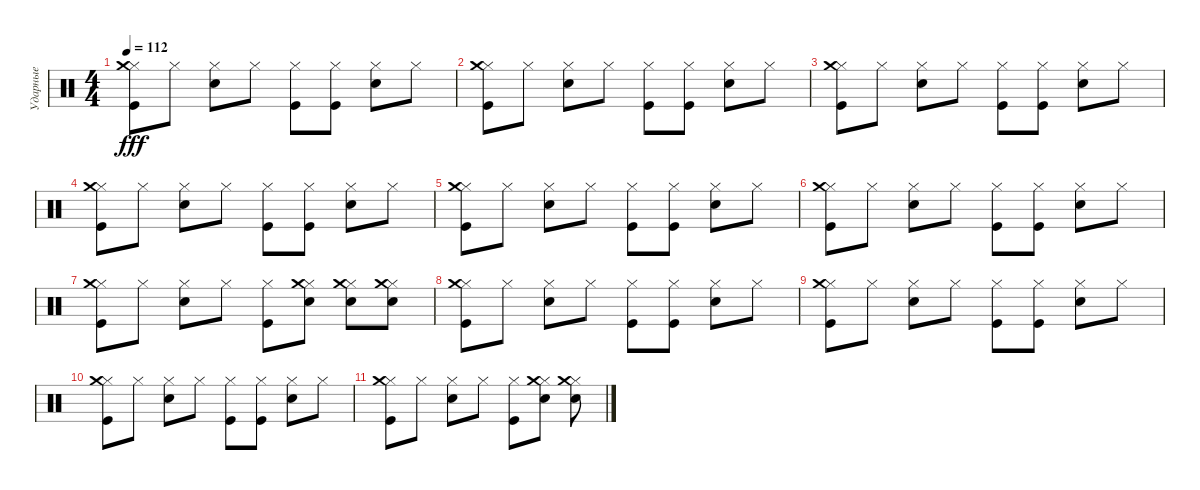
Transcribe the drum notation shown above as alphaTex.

\track ("Ударные" "Ударные") {instrument percussion}
\staff {score}
\articulation defaults
\ts (4 4)
\tempo 112
\clef neutral
\ks c
("Hi-Hat (closed)" "Kick (hit)" "Crash medium (hit)").8{dy fff} "Hi-Hat (closed)".8 ("Hi-Hat (closed)" "Snare (hit) 2").8 "Hi-Hat (closed)".8 ("Hi-Hat (closed)" "Kick (hit)").8 ("Hi-Hat (closed)" "Kick (hit)").8 ("Hi-Hat (closed)" "Snare (hit) 2").8 "Hi-Hat (closed)".8 |
("Hi-Hat (closed)" "Kick (hit)" "Crash medium (hit)").8 "Hi-Hat (closed)".8 ("Hi-Hat (closed)" "Snare (hit) 2").8 "Hi-Hat (closed)".8 ("Hi-Hat (closed)" "Kick (hit)").8 ("Hi-Hat (closed)" "Kick (hit)").8 ("Hi-Hat (closed)" "Snare (hit) 2").8 "Hi-Hat (closed)".8 |
("Hi-Hat (closed)" "Kick (hit)" "Crash medium (hit)").8 "Hi-Hat (closed)".8 ("Hi-Hat (closed)" "Snare (hit) 2").8 "Hi-Hat (closed)".8 ("Hi-Hat (closed)" "Kick (hit)").8 ("Hi-Hat (closed)" "Kick (hit)").8 ("Hi-Hat (closed)" "Snare (hit) 2").8 "Hi-Hat (closed)".8 |
("Hi-Hat (closed)" "Kick (hit)" "Crash medium (hit)").8 "Hi-Hat (closed)".8 ("Hi-Hat (closed)" "Snare (hit) 2").8 "Hi-Hat (closed)".8 ("Hi-Hat (closed)" "Kick (hit)").8 ("Hi-Hat (closed)" "Kick (hit)").8 ("Hi-Hat (closed)" "Snare (hit) 2").8 "Hi-Hat (closed)".8 |
("Hi-Hat (closed)" "Kick (hit)" "Crash medium (hit)").8 "Hi-Hat (closed)".8 ("Hi-Hat (closed)" "Snare (hit) 2").8 "Hi-Hat (closed)".8 ("Hi-Hat (closed)" "Kick (hit)").8 ("Hi-Hat (closed)" "Kick (hit)").8 ("Hi-Hat (closed)" "Snare (hit) 2").8 "Hi-Hat (closed)".8 |
("Hi-Hat (closed)" "Kick (hit)" "Crash medium (hit)").8 "Hi-Hat (closed)".8 ("Hi-Hat (closed)" "Snare (hit) 2").8 "Hi-Hat (closed)".8 ("Hi-Hat (closed)" "Kick (hit)").8 ("Hi-Hat (closed)" "Kick (hit)").8 ("Hi-Hat (closed)" "Snare (hit) 2").8 "Hi-Hat (closed)".8 |
("Hi-Hat (closed)" "Kick (hit)" "Crash medium (hit)").8 "Hi-Hat (closed)".8 ("Hi-Hat (closed)" "Snare (hit) 2").8 "Hi-Hat (closed)".8 ("Hi-Hat (closed)" "Kick (hit)").8 ("Hi-Hat (closed)" "Snare (hit) 2" "Crash medium (hit)").8 ("Hi-Hat (closed)" "Snare (hit) 2" "Crash medium (hit)").8 ("Hi-Hat (closed)" "Snare (hit) 2" "Crash medium (hit)").8 |
("Hi-Hat (closed)" "Kick (hit)" "Crash medium (hit)").8 "Hi-Hat (closed)".8 ("Hi-Hat (closed)" "Snare (hit) 2").8 "Hi-Hat (closed)".8 ("Hi-Hat (closed)" "Kick (hit)").8 ("Hi-Hat (closed)" "Kick (hit)").8 ("Hi-Hat (closed)" "Snare (hit) 2").8 "Hi-Hat (closed)".8 |
("Hi-Hat (closed)" "Kick (hit)" "Crash medium (hit)").8 "Hi-Hat (closed)".8 ("Hi-Hat (closed)" "Snare (hit) 2").8 "Hi-Hat (closed)".8 ("Hi-Hat (closed)" "Kick (hit)").8 ("Hi-Hat (closed)" "Kick (hit)").8 ("Hi-Hat (closed)" "Snare (hit) 2").8 "Hi-Hat (closed)".8 |
("Hi-Hat (closed)" "Kick (hit)" "Crash medium (hit)").8 "Hi-Hat (closed)".8 ("Hi-Hat (closed)" "Snare (hit) 2").8 "Hi-Hat (closed)".8 ("Hi-Hat (closed)" "Kick (hit)").8 ("Hi-Hat (closed)" "Kick (hit)").8 ("Hi-Hat (closed)" "Snare (hit) 2").8 "Hi-Hat (closed)".8 |
("Hi-Hat (closed)" "Kick (hit)" "Crash medium (hit)").8 "Hi-Hat (closed)".8 ("Hi-Hat (closed)" "Snare (hit) 2").8 "Hi-Hat (closed)".8 ("Hi-Hat (closed)" "Kick (hit)").8 ("Hi-Hat (closed)" "Snare (hit) 2" "Crash medium (hit)").8 ("Hi-Hat (closed)" "Snare (hit) 2" "Crash medium (hit)").8
